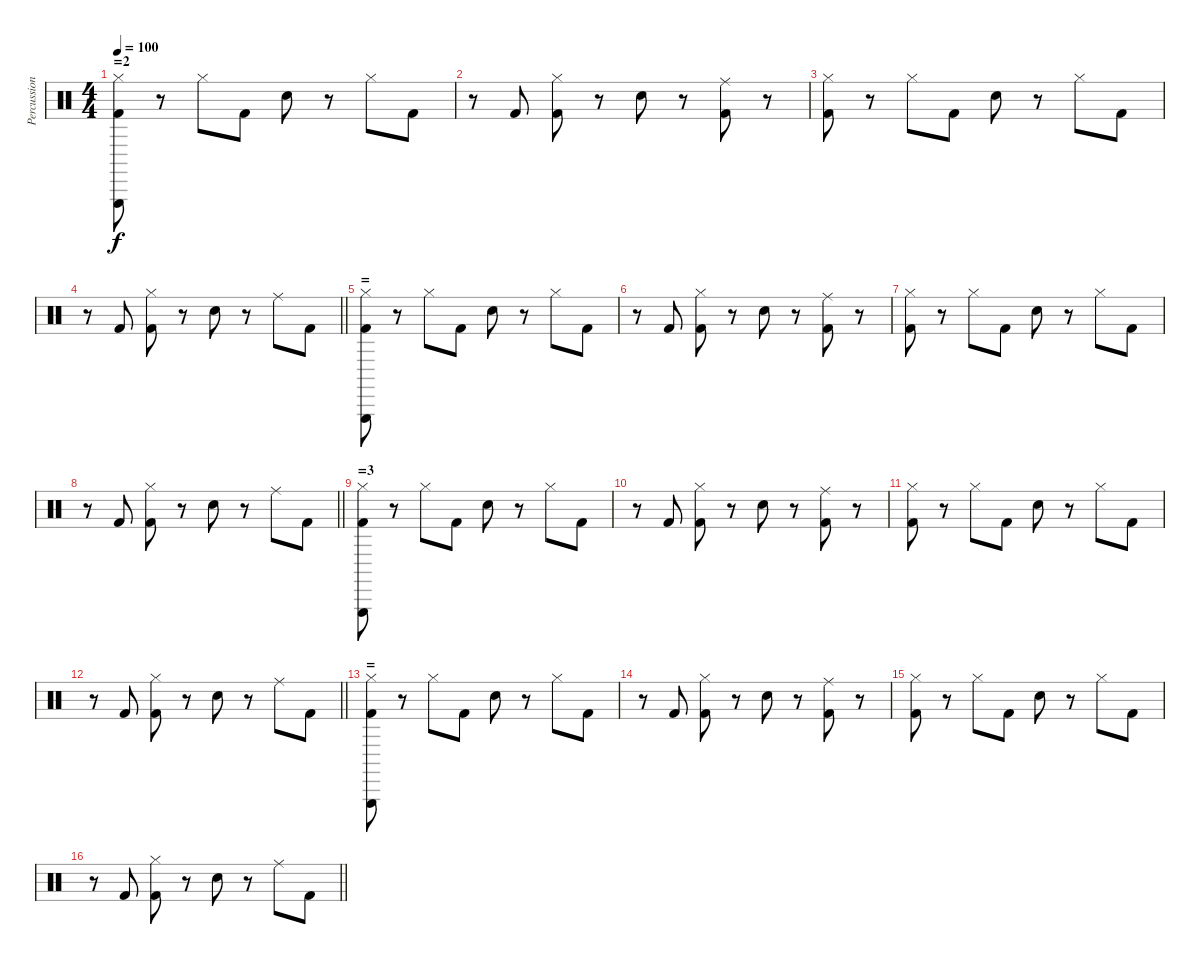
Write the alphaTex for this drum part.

\track ("Percussion" "Percussion") {instrument percussion}
\staff {score}
\articulation defaults
\ts (4 4)
\section ("" "=2")
\tempo 100
\clef neutral
\ks c
("Kick (hit) 2" "Triangle (hit)" "Hi-Hat (closed)").8{dy f} r.8 "Hi-Hat (closed)".8 "Kick (hit) 2".8 "Electric Snare (hit)".8 r.8 "Hi-Hat (closed)".8 "Kick (hit) 2".8 |
r.8 "Kick (hit) 2".8 ("Kick (hit) 2" "Hi-Hat (closed)").8 r.8 "Electric Snare (hit)".8 r.8 ("Kick (hit) 2" "Ride (middle)").8 r.8 |
("Kick (hit) 2" "Hi-Hat (closed)").8 r.8 "Hi-Hat (closed)".8 "Kick (hit) 2".8 "Electric Snare (hit)".8 r.8 "Hi-Hat (closed)".8 "Kick (hit) 2".8 |
\barLineRight lightlight
r.8 "Kick (hit) 2".8 ("Kick (hit) 2" "Hi-Hat (closed)").8 r.8 "Electric Snare (hit)".8 r.8 "Ride (middle)".8 "Kick (hit) 2".8 |
\section ("" "=")
("Kick (hit) 2" "Triangle (hit)" "Hi-Hat (closed)").8 r.8 "Hi-Hat (closed)".8 "Kick (hit) 2".8 "Electric Snare (hit)".8 r.8 "Hi-Hat (closed)".8 "Kick (hit) 2".8 |
r.8 "Kick (hit) 2".8 ("Kick (hit) 2" "Hi-Hat (closed)").8 r.8 "Electric Snare (hit)".8 r.8 ("Kick (hit) 2" "Ride (middle)").8 r.8 |
("Kick (hit) 2" "Hi-Hat (closed)").8 r.8 "Hi-Hat (closed)".8 "Kick (hit) 2".8 "Electric Snare (hit)".8 r.8 "Hi-Hat (closed)".8 "Kick (hit) 2".8 |
\barLineRight lightlight
r.8 "Kick (hit) 2".8 ("Kick (hit) 2" "Hi-Hat (closed)").8 r.8 "Electric Snare (hit)".8 r.8 "Ride (middle)".8 "Kick (hit) 2".8 |
\section ("" "=3")
("Kick (hit) 2" "Triangle (hit)" "Hi-Hat (closed)").8 r.8 "Hi-Hat (closed)".8 "Kick (hit) 2".8 "Electric Snare (hit)".8 r.8 "Hi-Hat (closed)".8 "Kick (hit) 2".8 |
r.8 "Kick (hit) 2".8 ("Kick (hit) 2" "Hi-Hat (closed)").8 r.8 "Electric Snare (hit)".8 r.8 ("Kick (hit) 2" "Ride (middle)").8 r.8 |
("Kick (hit) 2" "Hi-Hat (closed)").8 r.8 "Hi-Hat (closed)".8 "Kick (hit) 2".8 "Electric Snare (hit)".8 r.8 "Hi-Hat (closed)".8 "Kick (hit) 2".8 |
\barLineRight lightlight
r.8 "Kick (hit) 2".8 ("Kick (hit) 2" "Hi-Hat (closed)").8 r.8 "Electric Snare (hit)".8 r.8 "Ride (middle)".8 "Kick (hit) 2".8 |
\section ("" "=")
("Kick (hit) 2" "Triangle (hit)" "Hi-Hat (closed)").8 r.8 "Hi-Hat (closed)".8 "Kick (hit) 2".8 "Electric Snare (hit)".8 r.8 "Hi-Hat (closed)".8 "Kick (hit) 2".8 |
r.8 "Kick (hit) 2".8 ("Kick (hit) 2" "Hi-Hat (closed)").8 r.8 "Electric Snare (hit)".8 r.8 ("Kick (hit) 2" "Ride (middle)").8 r.8 |
("Kick (hit) 2" "Hi-Hat (closed)").8 r.8 "Hi-Hat (closed)".8 "Kick (hit) 2".8 "Electric Snare (hit)".8 r.8 "Hi-Hat (closed)".8 "Kick (hit) 2".8 |
\barLineRight lightlight
r.8 "Kick (hit) 2".8 ("Kick (hit) 2" "Hi-Hat (closed)").8 r.8 "Electric Snare (hit)".8 r.8 "Ride (middle)".8 "Kick (hit) 2".8
